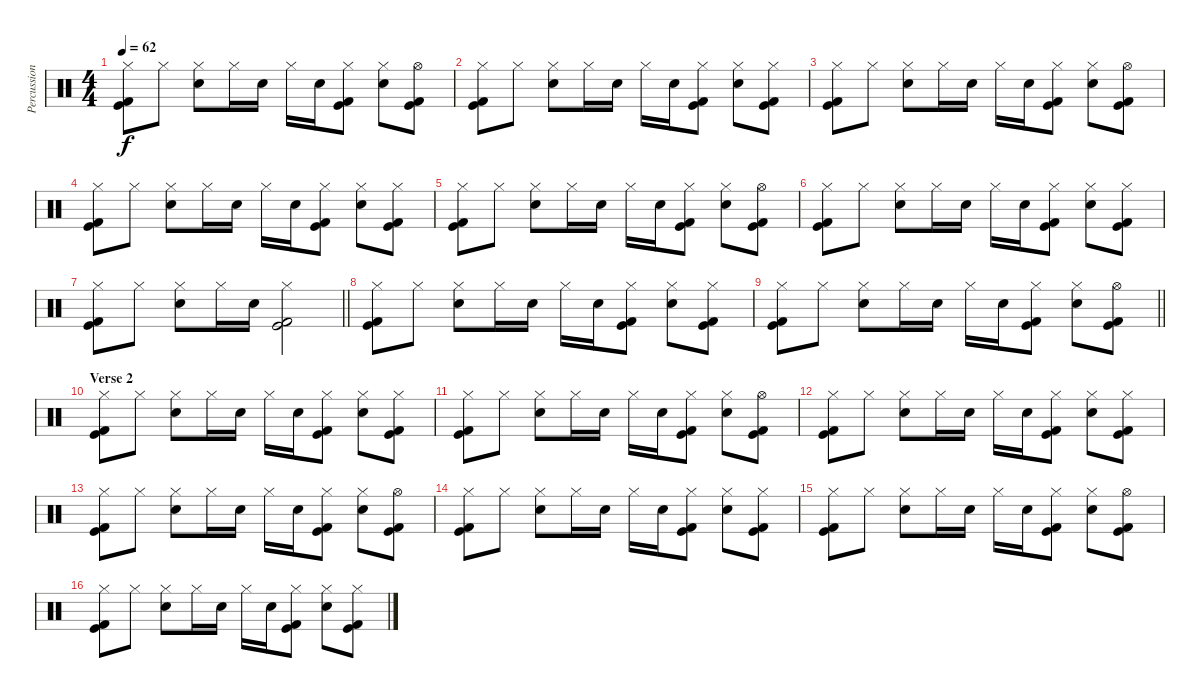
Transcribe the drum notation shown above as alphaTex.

\track ("Percussion" "Percussion") {instrument percussion}
\staff {score}
\articulation defaults
\ts (4 4)
\tempo 62
\clef neutral
\ks c
("Hi-Hat (closed)" "Kick (hit)" "Kick (hit) 2").8{dy f} "Hi-Hat (closed)".8 ("Hi-Hat (closed)" "Snare (hit) 2").8 "Hi-Hat (closed)".16 "Snare (hit) 2".16 "Hi-Hat (closed)".16 "Snare (hit) 2".16 ("Hi-Hat (closed)" "Kick (hit)" "Kick (hit) 2").8 ("Hi-Hat (closed)" "Snare (hit) 2").8 ("Hi-Hat (open)" "Kick (hit)" "Kick (hit) 2").8 |
("Hi-Hat (closed)" "Kick (hit)" "Kick (hit) 2").8 "Hi-Hat (closed)".8 ("Hi-Hat (closed)" "Snare (hit) 2").8 "Hi-Hat (closed)".16 "Snare (hit) 2".16 "Hi-Hat (closed)".16 "Snare (hit) 2".16 ("Hi-Hat (closed)" "Kick (hit)" "Kick (hit) 2").8 ("Hi-Hat (closed)" "Snare (hit) 2").8 ("Hi-Hat (closed)" "Kick (hit)" "Kick (hit) 2").8 |
("Hi-Hat (closed)" "Kick (hit)" "Kick (hit) 2").8 "Hi-Hat (closed)".8 ("Hi-Hat (closed)" "Snare (hit) 2").8 "Hi-Hat (closed)".16 "Snare (hit) 2".16 "Hi-Hat (closed)".16 "Snare (hit) 2".16 ("Hi-Hat (closed)" "Kick (hit)" "Kick (hit) 2").8 ("Hi-Hat (closed)" "Snare (hit) 2").8 ("Hi-Hat (open)" "Kick (hit)" "Kick (hit) 2").8 |
("Hi-Hat (closed)" "Kick (hit)" "Kick (hit) 2").8 "Hi-Hat (closed)".8 ("Hi-Hat (closed)" "Snare (hit) 2").8 "Hi-Hat (closed)".16 "Snare (hit) 2".16 "Hi-Hat (closed)".16 "Snare (hit) 2".16 ("Hi-Hat (closed)" "Kick (hit)" "Kick (hit) 2").8 ("Hi-Hat (closed)" "Snare (hit) 2").8 ("Hi-Hat (closed)" "Kick (hit)" "Kick (hit) 2").8 |
("Hi-Hat (closed)" "Kick (hit)" "Kick (hit) 2").8 "Hi-Hat (closed)".8 ("Hi-Hat (closed)" "Snare (hit) 2").8 "Hi-Hat (closed)".16 "Snare (hit) 2".16 "Hi-Hat (closed)".16 "Snare (hit) 2".16 ("Hi-Hat (closed)" "Kick (hit)" "Kick (hit) 2").8 ("Hi-Hat (closed)" "Snare (hit) 2").8 ("Hi-Hat (open)" "Kick (hit)" "Kick (hit) 2").8 |
("Hi-Hat (closed)" "Kick (hit)" "Kick (hit) 2").8 "Hi-Hat (closed)".8 ("Hi-Hat (closed)" "Snare (hit) 2").8 "Hi-Hat (closed)".16 "Snare (hit) 2".16 "Hi-Hat (closed)".16 "Snare (hit) 2".16 ("Hi-Hat (closed)" "Kick (hit)" "Kick (hit) 2").8 ("Hi-Hat (closed)" "Snare (hit) 2").8 ("Hi-Hat (closed)" "Kick (hit)" "Kick (hit) 2").8 |
\barLineRight lightlight
("Hi-Hat (closed)" "Kick (hit)" "Kick (hit) 2").8 "Hi-Hat (closed)".8 ("Hi-Hat (closed)" "Snare (hit) 2").8 "Hi-Hat (closed)".16 "Snare (hit) 2".16 ("Hi-Hat (closed)" "Kick (hit)" "Kick (hit) 2").2 |
\section ("" "")
("Hi-Hat (closed)" "Kick (hit)" "Kick (hit) 2").8 "Hi-Hat (closed)".8 ("Hi-Hat (closed)" "Snare (hit) 2").8 "Hi-Hat (closed)".16 "Snare (hit) 2".16 "Hi-Hat (closed)".16 "Snare (hit) 2".16 ("Hi-Hat (closed)" "Kick (hit)" "Kick (hit) 2").8 ("Hi-Hat (closed)" "Snare (hit) 2").8 ("Hi-Hat (closed)" "Kick (hit)" "Kick (hit) 2").8 |
\barLineRight lightlight
("Hi-Hat (closed)" "Kick (hit)" "Kick (hit) 2").8 "Hi-Hat (closed)".8 ("Hi-Hat (closed)" "Snare (hit) 2").8 "Hi-Hat (closed)".16 "Snare (hit) 2".16 "Hi-Hat (closed)".16 "Snare (hit) 2".16 ("Hi-Hat (closed)" "Kick (hit)" "Kick (hit) 2").8 ("Hi-Hat (closed)" "Snare (hit) 2").8 ("Hi-Hat (open)" "Kick (hit)" "Kick (hit) 2").8 |
\section ("" "Verse 2")
("Hi-Hat (closed)" "Kick (hit)" "Kick (hit) 2").8 "Hi-Hat (closed)".8 ("Hi-Hat (closed)" "Snare (hit) 2").8 "Hi-Hat (closed)".16 "Snare (hit) 2".16 "Hi-Hat (closed)".16 "Snare (hit) 2".16 ("Hi-Hat (closed)" "Kick (hit)" "Kick (hit) 2").8 ("Hi-Hat (closed)" "Snare (hit) 2").8 ("Hi-Hat (closed)" "Kick (hit)" "Kick (hit) 2").8 |
("Hi-Hat (closed)" "Kick (hit)" "Kick (hit) 2").8 "Hi-Hat (closed)".8 ("Hi-Hat (closed)" "Snare (hit) 2").8 "Hi-Hat (closed)".16 "Snare (hit) 2".16 "Hi-Hat (closed)".16 "Snare (hit) 2".16 ("Hi-Hat (closed)" "Kick (hit)" "Kick (hit) 2").8 ("Hi-Hat (closed)" "Snare (hit) 2").8 ("Hi-Hat (open)" "Kick (hit)" "Kick (hit) 2").8 |
("Hi-Hat (closed)" "Kick (hit)" "Kick (hit) 2").8 "Hi-Hat (closed)".8 ("Hi-Hat (closed)" "Snare (hit) 2").8 "Hi-Hat (closed)".16 "Snare (hit) 2".16 "Hi-Hat (closed)".16 "Snare (hit) 2".16 ("Hi-Hat (closed)" "Kick (hit)" "Kick (hit) 2").8 ("Hi-Hat (closed)" "Snare (hit) 2").8 ("Hi-Hat (closed)" "Kick (hit)" "Kick (hit) 2").8 |
("Hi-Hat (closed)" "Kick (hit)" "Kick (hit) 2").8 "Hi-Hat (closed)".8 ("Hi-Hat (closed)" "Snare (hit) 2").8 "Hi-Hat (closed)".16 "Snare (hit) 2".16 "Hi-Hat (closed)".16 "Snare (hit) 2".16 ("Hi-Hat (closed)" "Kick (hit)" "Kick (hit) 2").8 ("Hi-Hat (closed)" "Snare (hit) 2").8 ("Hi-Hat (open)" "Kick (hit)" "Kick (hit) 2").8 |
("Hi-Hat (closed)" "Kick (hit)" "Kick (hit) 2").8 "Hi-Hat (closed)".8 ("Hi-Hat (closed)" "Snare (hit) 2").8 "Hi-Hat (closed)".16 "Snare (hit) 2".16 "Hi-Hat (closed)".16 "Snare (hit) 2".16 ("Hi-Hat (closed)" "Kick (hit)" "Kick (hit) 2").8 ("Hi-Hat (closed)" "Snare (hit) 2").8 ("Hi-Hat (closed)" "Kick (hit)" "Kick (hit) 2").8 |
("Hi-Hat (closed)" "Kick (hit)" "Kick (hit) 2").8 "Hi-Hat (closed)".8 ("Hi-Hat (closed)" "Snare (hit) 2").8 "Hi-Hat (closed)".16 "Snare (hit) 2".16 "Hi-Hat (closed)".16 "Snare (hit) 2".16 ("Hi-Hat (closed)" "Kick (hit)" "Kick (hit) 2").8 ("Hi-Hat (closed)" "Snare (hit) 2").8 ("Hi-Hat (open)" "Kick (hit)" "Kick (hit) 2").8 |
("Hi-Hat (closed)" "Kick (hit)" "Kick (hit) 2").8 "Hi-Hat (closed)".8 ("Hi-Hat (closed)" "Snare (hit) 2").8 "Hi-Hat (closed)".16 "Snare (hit) 2".16 "Hi-Hat (closed)".16 "Snare (hit) 2".16 ("Hi-Hat (closed)" "Kick (hit)" "Kick (hit) 2").8 ("Hi-Hat (closed)" "Snare (hit) 2").8 ("Hi-Hat (closed)" "Kick (hit)" "Kick (hit) 2").8
